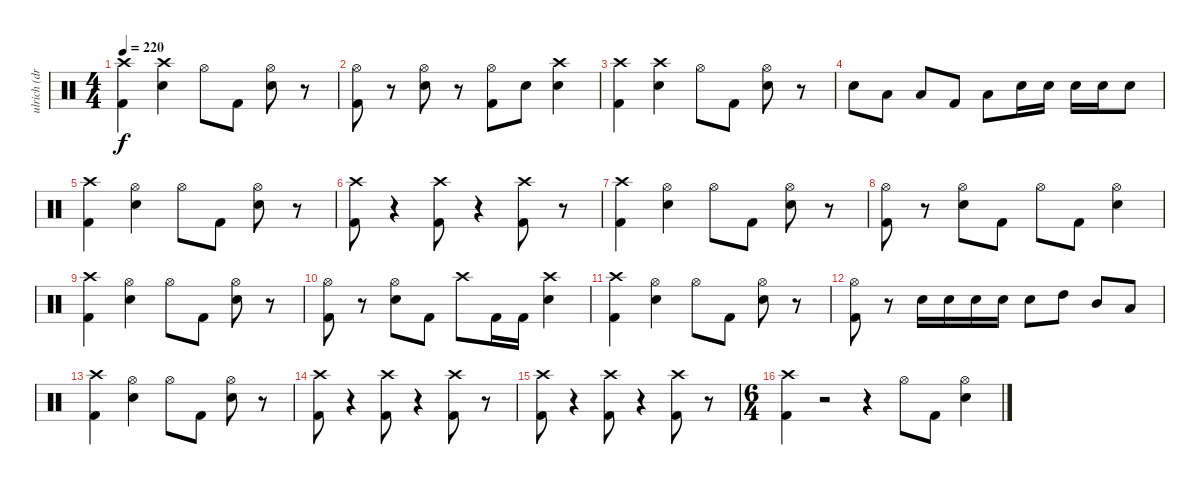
\track ("ulrich (drums)" "ulrich (dr") {instrument percussion}
\staff {score}
\articulation defaults
\ts (4 4)
\tempo 220
\clef neutral
\ks c
("Crash high (hit)" "Kick (hit) 2").4{dy f} ("Crash high (hit)" "Snare (hit) 2").4 "Hi-Hat (open)".8 "Kick (hit) 2".8 ("Hi-Hat (open)" "Snare (hit) 2").8 r.8 |
("Hi-Hat (open)" "Kick (hit) 2").8 r.8 ("Hi-Hat (open)" "Snare (hit) 2").8 r.8 ("Hi-Hat (open)" "Kick (hit) 2").8 "Snare (hit) 2".8 ("Crash high (hit)" "Snare (hit) 2").4 |
("Crash high (hit)" "Kick (hit) 2").4 ("Crash high (hit)" "Snare (hit) 2").4 "Hi-Hat (open)".8 "Kick (hit) 2".8 ("Hi-Hat (open)" "Snare (hit) 2").8 r.8 |
"Snare (hit) 2".8 "Low Tom (hit)".8 "Low Tom (hit)".8 "Kick (hit) 2".8 "Low Tom (hit)".8 "Snare (hit) 2".16 "Snare (hit) 2".16 "Snare (hit) 2".16 "Snare (hit) 2".16 "Snare (hit) 2".8 |
("Crash high (hit)" "Kick (hit) 2").4 ("Hi-Hat (open)" "Snare (hit) 2").4 "Hi-Hat (open)".8 "Kick (hit) 2".8 ("Hi-Hat (open)" "Snare (hit) 2").8 r.8 |
("Crash high (hit)" "Kick (hit) 2").8 r.4 ("Crash high (hit)" "Kick (hit) 2").8 r.4 ("Crash high (hit)" "Kick (hit) 2").8 r.8 |
("Crash high (hit)" "Kick (hit) 2").4 ("Hi-Hat (open)" "Snare (hit) 2").4 "Hi-Hat (open)".8 "Kick (hit) 2".8 ("Hi-Hat (open)" "Snare (hit) 2").8 r.8 |
("Hi-Hat (open)" "Kick (hit) 2").8 r.8 ("Hi-Hat (open)" "Snare (hit) 2").8 "Kick (hit) 2".8 "Hi-Hat (open)".8 "Kick (hit) 2".8 ("Hi-Hat (open)" "Snare (hit) 2").4 |
("Crash high (hit)" "Kick (hit) 2").4 ("Hi-Hat (open)" "Snare (hit) 2").4 "Hi-Hat (open)".8 "Kick (hit) 2".8 ("Hi-Hat (open)" "Snare (hit) 2").8 r.8 |
("Hi-Hat (open)" "Kick (hit) 2").8 r.8 ("Hi-Hat (open)" "Snare (hit) 2").8 "Kick (hit) 2".8 "Crash high (hit)".8 "Kick (hit) 2".16 "Kick (hit) 2".16 ("Crash high (hit)" "Snare (hit) 2").4 |
("Crash high (hit)" "Kick (hit) 2").4 ("Hi-Hat (open)" "Snare (hit) 2").4 "Hi-Hat (open)".8 "Kick (hit) 2".8 ("Hi-Hat (open)" "Snare (hit) 2").8 r.8 |
("Hi-Hat (open)" "Kick (hit) 2").8 r.8 "Snare (hit) 2".16 "Snare (hit) 2".16 "Snare (hit) 2".16 "Snare (hit) 2".16 "Snare (hit) 2".8 "High Tom (hit)".8 "Mid Tom (hit)".8 "Low Tom (hit)".8 |
("Crash high (hit)" "Kick (hit) 2").4 ("Hi-Hat (open)" "Snare (hit) 2").4 "Hi-Hat (open)".8 "Kick (hit) 2".8 ("Hi-Hat (open)" "Snare (hit) 2").8 r.8 |
("Crash high (hit)" "Kick (hit) 2").8 r.4 ("Crash high (hit)" "Kick (hit) 2").8 r.4 ("Crash high (hit)" "Kick (hit) 2").8 r.8 |
("Crash high (hit)" "Kick (hit) 2").8 r.4 ("Crash high (hit)" "Kick (hit) 2").8 r.4 ("Crash high (hit)" "Kick (hit) 2").8 r.8 |
\ts (6 4)
("Crash high (hit)" "Kick (hit) 2").4 r.2 r.4 "Hi-Hat (open)".8 "Kick (hit) 2".8 ("Hi-Hat (open)" "Snare (hit) 2").4
